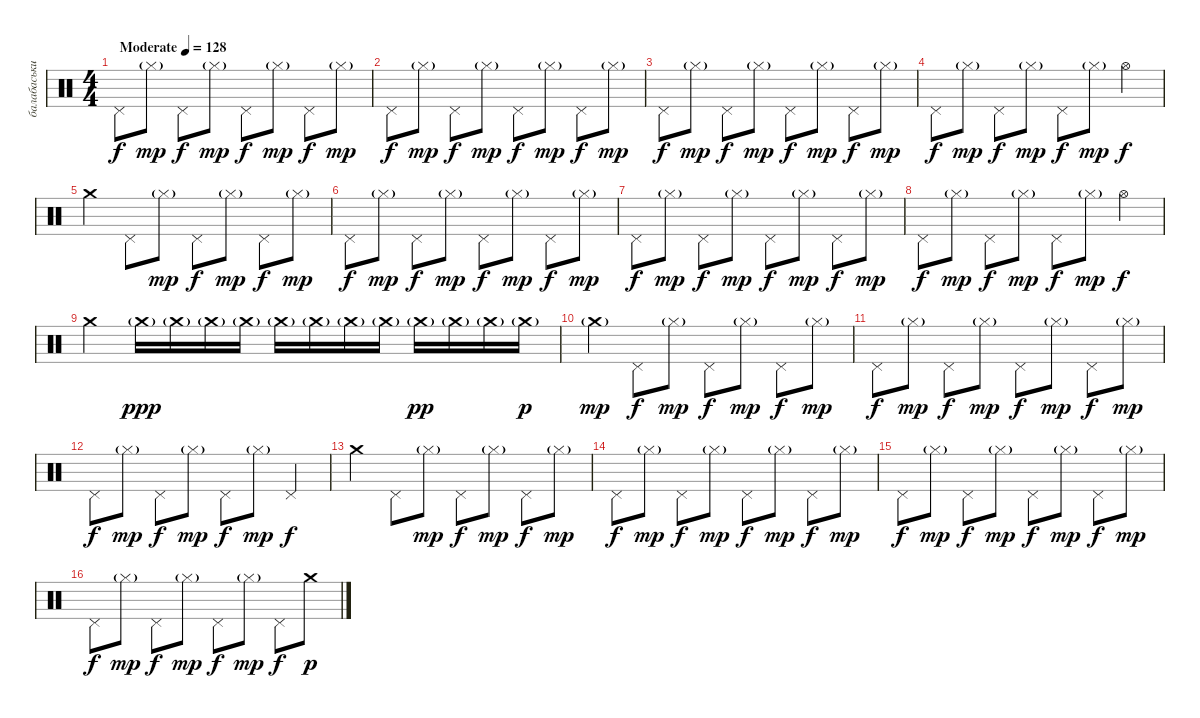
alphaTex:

\track ("балабаськи" "балабаськи") {instrument percussion}
\staff {score}
\articulation defaults
\ts (4 4)
\tempo (128 "Moderate")
\clef neutral
\ks c "Pedal Hi-Hat (hit)".8{dy f} "Hi-Hat (closed)"{g}.8{dy mp} "Pedal Hi-Hat (hit)".8{dy f} "Hi-Hat (closed)"{g}.8{dy mp} "Pedal Hi-Hat (hit)".8{dy f} "Hi-Hat (closed)"{g}.8{dy mp} "Pedal Hi-Hat (hit)".8{dy f} "Hi-Hat (closed)"{g}.8{dy mp}
|
"Pedal Hi-Hat (hit)".8{dy f} "Hi-Hat (closed)"{g}.8{dy mp} "Pedal Hi-Hat (hit)".8{dy f} "Hi-Hat (closed)"{g}.8{dy mp} "Pedal Hi-Hat (hit)".8{dy f} "Hi-Hat (closed)"{g}.8{dy mp} "Pedal Hi-Hat (hit)".8{dy f} "Hi-Hat (closed)"{g}.8{dy mp} |
"Pedal Hi-Hat (hit)".8{dy f} "Hi-Hat (closed)"{g}.8{dy mp} "Pedal Hi-Hat (hit)".8{dy f} "Hi-Hat (closed)"{g}.8{dy mp} "Pedal Hi-Hat (hit)".8{dy f} "Hi-Hat (closed)"{g}.8{dy mp} "Pedal Hi-Hat (hit)".8{dy f} "Hi-Hat (closed)"{g}.8{dy mp} |
"Pedal Hi-Hat (hit)".8{dy f} "Hi-Hat (closed)"{g}.8{dy mp} "Pedal Hi-Hat (hit)".8{dy f} "Hi-Hat (closed)"{g}.8{dy mp} "Pedal Hi-Hat (hit)".8{dy f} "Hi-Hat (closed)"{g}.8{dy mp} "Hi-Hat (open)".4{dy f} |
"Crash medium (hit)".4 "Pedal Hi-Hat (hit)".8 "Hi-Hat (closed)"{g}.8{dy mp} "Pedal Hi-Hat (hit)".8{dy f} "Hi-Hat (closed)"{g}.8{dy mp} "Pedal Hi-Hat (hit)".8{dy f} "Hi-Hat (closed)"{g}.8{dy mp} |
"Pedal Hi-Hat (hit)".8{dy f} "Hi-Hat (closed)"{g}.8{dy mp} "Pedal Hi-Hat (hit)".8{dy f} "Hi-Hat (closed)"{g}.8{dy mp} "Pedal Hi-Hat (hit)".8{dy f} "Hi-Hat (closed)"{g}.8{dy mp} "Pedal Hi-Hat (hit)".8{dy f} "Hi-Hat (closed)"{g}.8{dy mp} |
"Pedal Hi-Hat (hit)".8{dy f} "Hi-Hat (closed)"{g}.8{dy mp} "Pedal Hi-Hat (hit)".8{dy f} "Hi-Hat (closed)"{g}.8{dy mp} "Pedal Hi-Hat (hit)".8{dy f} "Hi-Hat (closed)"{g}.8{dy mp} "Pedal Hi-Hat (hit)".8{dy f} "Hi-Hat (closed)"{g}.8{dy mp} |
"Pedal Hi-Hat (hit)".8{dy f} "Hi-Hat (closed)"{g}.8{dy mp} "Pedal Hi-Hat (hit)".8{dy f} "Hi-Hat (closed)"{g}.8{dy mp} "Pedal Hi-Hat (hit)".8{dy f} "Hi-Hat (closed)"{g}.8{dy mp} "Hi-Hat (open)".4{dy f} |
"Crash medium (hit)".4 "Crash medium (hit)"{g}.16{dy ppp} "Crash medium (hit)"{g}.16 "Crash medium (hit)"{g}.16 "Crash medium (hit)"{g}.16 "Crash medium (hit)"{g}.16 "Crash medium (hit)"{g}.16 "Crash medium (hit)"{g}.16 "Crash medium (hit)"{g}.16 "Crash medium (hit)"{g}.16{dy pp} "Crash medium (hit)"{g}.16 "Crash medium (hit)"{g}.16 "Crash medium (hit)"{g}.16{dy p} |
"Crash medium (hit)"{g}.4{dy mp} "Pedal Hi-Hat (hit)".8{dy f} "Hi-Hat (closed)"{g}.8{dy mp} "Pedal Hi-Hat (hit)".8{dy f} "Hi-Hat (closed)"{g}.8{dy mp} "Pedal Hi-Hat (hit)".8{dy f} "Hi-Hat (closed)"{g}.8{dy mp} |
"Pedal Hi-Hat (hit)".8{dy f} "Hi-Hat (closed)"{g}.8{dy mp} "Pedal Hi-Hat (hit)".8{dy f} "Hi-Hat (closed)"{g}.8{dy mp} "Pedal Hi-Hat (hit)".8{dy f} "Hi-Hat (closed)"{g}.8{dy mp} "Pedal Hi-Hat (hit)".8{dy f} "Hi-Hat (closed)"{g}.8{dy mp} |
"Pedal Hi-Hat (hit)".8{dy f} "Hi-Hat (closed)"{g}.8{dy mp} "Pedal Hi-Hat (hit)".8{dy f} "Hi-Hat (closed)"{g}.8{dy mp} "Pedal Hi-Hat (hit)".8{dy f} "Hi-Hat (closed)"{g}.8{dy mp} "Pedal Hi-Hat (hit)".4{dy f} |
"Crash medium (hit)".4 "Pedal Hi-Hat (hit)".8 "Hi-Hat (closed)"{g}.8{dy mp} "Pedal Hi-Hat (hit)".8{dy f} "Hi-Hat (closed)"{g}.8{dy mp} "Pedal Hi-Hat (hit)".8{dy f} "Hi-Hat (closed)"{g}.8{dy mp} |
"Pedal Hi-Hat (hit)".8{dy f} "Hi-Hat (closed)"{g}.8{dy mp} "Pedal Hi-Hat (hit)".8{dy f} "Hi-Hat (closed)"{g}.8{dy mp} "Pedal Hi-Hat (hit)".8{dy f} "Hi-Hat (closed)"{g}.8{dy mp} "Pedal Hi-Hat (hit)".8{dy f} "Hi-Hat (closed)"{g}.8{dy mp} |
"Pedal Hi-Hat (hit)".8{dy f} "Hi-Hat (closed)"{g}.8{dy mp} "Pedal Hi-Hat (hit)".8{dy f} "Hi-Hat (closed)"{g}.8{dy mp} "Pedal Hi-Hat (hit)".8{dy f} "Hi-Hat (closed)"{g}.8{dy mp} "Pedal Hi-Hat (hit)".8{dy f} "Hi-Hat (closed)"{g}.8{dy mp} |
"Pedal Hi-Hat (hit)".8{dy f} "Hi-Hat (closed)"{g}.8{dy mp} "Pedal Hi-Hat (hit)".8{dy f} "Hi-Hat (closed)"{g}.8{dy mp} "Pedal Hi-Hat (hit)".8{dy f} "Hi-Hat (closed)"{g}.8{dy mp} "Pedal Hi-Hat (hit)".8{dy f} "Crash medium (hit)".8{dy p}
